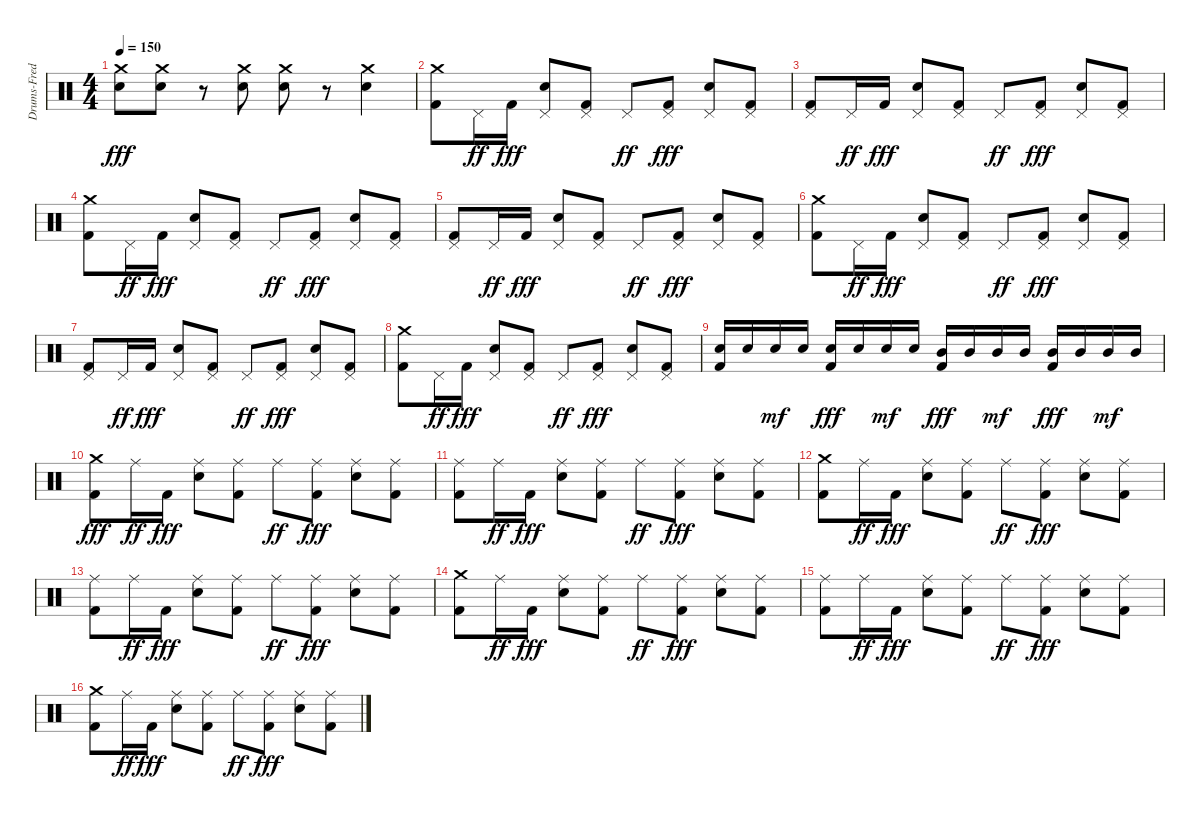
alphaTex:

\track ("Drums-Fred" "Drums-Fred") {instrument percussion}
\staff {score}
\articulation defaults
\ts (4 4)
\tempo 150
\clef neutral
\ks c
("Crash medium (hit)" "Snare (hit) 2").8{dy fff} ("Crash medium (hit)" "Snare (hit) 2").8 r.8 ("Crash medium (hit)" "Snare (hit) 2").8 ("Crash medium (hit)" "Snare (hit) 2").8 r.8 ("Crash medium (hit)" "Snare (hit) 2").4 |
("Crash medium (hit)" "Kick (hit) 2").8 "Pedal Hi-Hat (hit)".16{dy ff} "Kick (hit) 2".16{dy fff} ("Pedal Hi-Hat (hit)" "Snare (hit) 2").8 ("Pedal Hi-Hat (hit)" "Kick (hit) 2").8 "Pedal Hi-Hat (hit)".8{dy ff} ("Pedal Hi-Hat (hit)" "Kick (hit) 2").8{dy fff} ("Pedal Hi-Hat (hit)" "Snare (hit) 2").8 ("Pedal Hi-Hat (hit)" "Kick (hit) 2").8 |
("Pedal Hi-Hat (hit)" "Kick (hit) 2").8 "Pedal Hi-Hat (hit)".16{dy ff} "Kick (hit) 2".16{dy fff} ("Pedal Hi-Hat (hit)" "Snare (hit) 2").8 ("Pedal Hi-Hat (hit)" "Kick (hit) 2").8 "Pedal Hi-Hat (hit)".8{dy ff} ("Pedal Hi-Hat (hit)" "Kick (hit) 2").8{dy fff} ("Pedal Hi-Hat (hit)" "Snare (hit) 2").8 ("Pedal Hi-Hat (hit)" "Kick (hit) 2").8 |
("Crash medium (hit)" "Kick (hit) 2").8 "Pedal Hi-Hat (hit)".16{dy ff} "Kick (hit) 2".16{dy fff} ("Pedal Hi-Hat (hit)" "Snare (hit) 2").8 ("Pedal Hi-Hat (hit)" "Kick (hit) 2").8 "Pedal Hi-Hat (hit)".8{dy ff} ("Pedal Hi-Hat (hit)" "Kick (hit) 2").8{dy fff} ("Pedal Hi-Hat (hit)" "Snare (hit) 2").8 ("Pedal Hi-Hat (hit)" "Kick (hit) 2").8 |
("Pedal Hi-Hat (hit)" "Kick (hit) 2").8 "Pedal Hi-Hat (hit)".16{dy ff} "Kick (hit) 2".16{dy fff} ("Pedal Hi-Hat (hit)" "Snare (hit) 2").8 ("Pedal Hi-Hat (hit)" "Kick (hit) 2").8 "Pedal Hi-Hat (hit)".8{dy ff} ("Pedal Hi-Hat (hit)" "Kick (hit) 2").8{dy fff} ("Pedal Hi-Hat (hit)" "Snare (hit) 2").8 ("Pedal Hi-Hat (hit)" "Kick (hit) 2").8 |
("Crash medium (hit)" "Kick (hit) 2").8 "Pedal Hi-Hat (hit)".16{dy ff} "Kick (hit) 2".16{dy fff} ("Pedal Hi-Hat (hit)" "Snare (hit) 2").8 ("Pedal Hi-Hat (hit)" "Kick (hit) 2").8 "Pedal Hi-Hat (hit)".8{dy ff} ("Pedal Hi-Hat (hit)" "Kick (hit) 2").8{dy fff} ("Pedal Hi-Hat (hit)" "Snare (hit) 2").8 ("Pedal Hi-Hat (hit)" "Kick (hit) 2").8 |
("Pedal Hi-Hat (hit)" "Kick (hit) 2").8 "Pedal Hi-Hat (hit)".16{dy ff} "Kick (hit) 2".16{dy fff} ("Pedal Hi-Hat (hit)" "Snare (hit) 2").8 ("Pedal Hi-Hat (hit)" "Kick (hit) 2").8 "Pedal Hi-Hat (hit)".8{dy ff} ("Pedal Hi-Hat (hit)" "Kick (hit) 2").8{dy fff} ("Pedal Hi-Hat (hit)" "Snare (hit) 2").8 ("Pedal Hi-Hat (hit)" "Kick (hit) 2").8 |
("Crash medium (hit)" "Kick (hit) 2").8 "Pedal Hi-Hat (hit)".16{dy ff} "Kick (hit) 2".16{dy fff} ("Pedal Hi-Hat (hit)" "Snare (hit) 2").8 ("Pedal Hi-Hat (hit)" "Kick (hit) 2").8 "Pedal Hi-Hat (hit)".8{dy ff} ("Pedal Hi-Hat (hit)" "Kick (hit) 2").8{dy fff} ("Pedal Hi-Hat (hit)" "Snare (hit) 2").8 ("Pedal Hi-Hat (hit)" "Kick (hit) 2").8 |
("Snare (hit) 2" "Kick (hit) 2").16 "Snare (hit) 2".16 "Snare (hit) 2".16{dy mf} "Snare (hit) 2".16 ("Snare (hit) 2" "Kick (hit) 2").16{dy fff} "Snare (hit) 2".16 "Snare (hit) 2".16{dy mf} "Snare (hit) 2".16 ("Mid Tom (hit)" "Kick (hit) 2").16{dy fff} "Mid Tom (hit)".16 "Mid Tom (hit)".16{dy mf} "Mid Tom (hit)".16 ("Mid Tom (hit)" "Kick (hit) 2").16{dy fff} "Mid Tom (hit)".16 "Mid Tom (hit)".16{dy mf} "Mid Tom (hit)".16 |
("Crash medium (hit)" "Kick (hit) 2").8{dy fff} "Ride (middle)".16{dy ff} "Kick (hit) 2".16{dy fff} ("Ride (middle)" "Snare (hit) 2").8 ("Ride (middle)" "Kick (hit) 2").8 "Ride (middle)".8{dy ff} ("Ride (middle)" "Kick (hit) 2").8{dy fff} ("Ride (middle)" "Snare (hit) 2").8 ("Ride (middle)" "Kick (hit) 2").8 |
("Ride (middle)" "Kick (hit) 2").8 "Ride (middle)".16{dy ff} "Kick (hit) 2".16{dy fff} ("Ride (middle)" "Snare (hit) 2").8 ("Ride (middle)" "Kick (hit) 2").8 "Ride (middle)".8{dy ff} ("Ride (middle)" "Kick (hit) 2").8{dy fff} ("Ride (middle)" "Snare (hit) 2").8 ("Ride (middle)" "Kick (hit) 2").8 |
("Crash medium (hit)" "Kick (hit) 2").8 "Ride (middle)".16{dy ff} "Kick (hit) 2".16{dy fff} ("Ride (middle)" "Snare (hit) 2").8 ("Ride (middle)" "Kick (hit) 2").8 "Ride (middle)".8{dy ff} ("Ride (middle)" "Kick (hit) 2").8{dy fff} ("Ride (middle)" "Snare (hit) 2").8 ("Ride (middle)" "Kick (hit) 2").8 |
("Ride (middle)" "Kick (hit) 2").8 "Ride (middle)".16{dy ff} "Kick (hit) 2".16{dy fff} ("Ride (middle)" "Snare (hit) 2").8 ("Ride (middle)" "Kick (hit) 2").8 "Ride (middle)".8{dy ff} ("Ride (middle)" "Kick (hit) 2").8{dy fff} ("Ride (middle)" "Snare (hit) 2").8 ("Ride (middle)" "Kick (hit) 2").8 |
("Crash medium (hit)" "Kick (hit) 2").8 "Ride (middle)".16{dy ff} "Kick (hit) 2".16{dy fff} ("Ride (middle)" "Snare (hit) 2").8 ("Ride (middle)" "Kick (hit) 2").8 "Ride (middle)".8{dy ff} ("Ride (middle)" "Kick (hit) 2").8{dy fff} ("Ride (middle)" "Snare (hit) 2").8 ("Ride (middle)" "Kick (hit) 2").8 |
("Ride (middle)" "Kick (hit) 2").8 "Ride (middle)".16{dy ff} "Kick (hit) 2".16{dy fff} ("Ride (middle)" "Snare (hit) 2").8 ("Ride (middle)" "Kick (hit) 2").8 "Ride (middle)".8{dy ff} ("Ride (middle)" "Kick (hit) 2").8{dy fff} ("Ride (middle)" "Snare (hit) 2").8 ("Ride (middle)" "Kick (hit) 2").8 |
("Crash medium (hit)" "Kick (hit) 2").8 "Ride (middle)".16{dy ff} "Kick (hit) 2".16{dy fff} ("Ride (middle)" "Snare (hit) 2").8 ("Ride (middle)" "Kick (hit) 2").8 "Ride (middle)".8{dy ff} ("Ride (middle)" "Kick (hit) 2").8{dy fff} ("Ride (middle)" "Snare (hit) 2").8 ("Ride (middle)" "Kick (hit) 2").8
